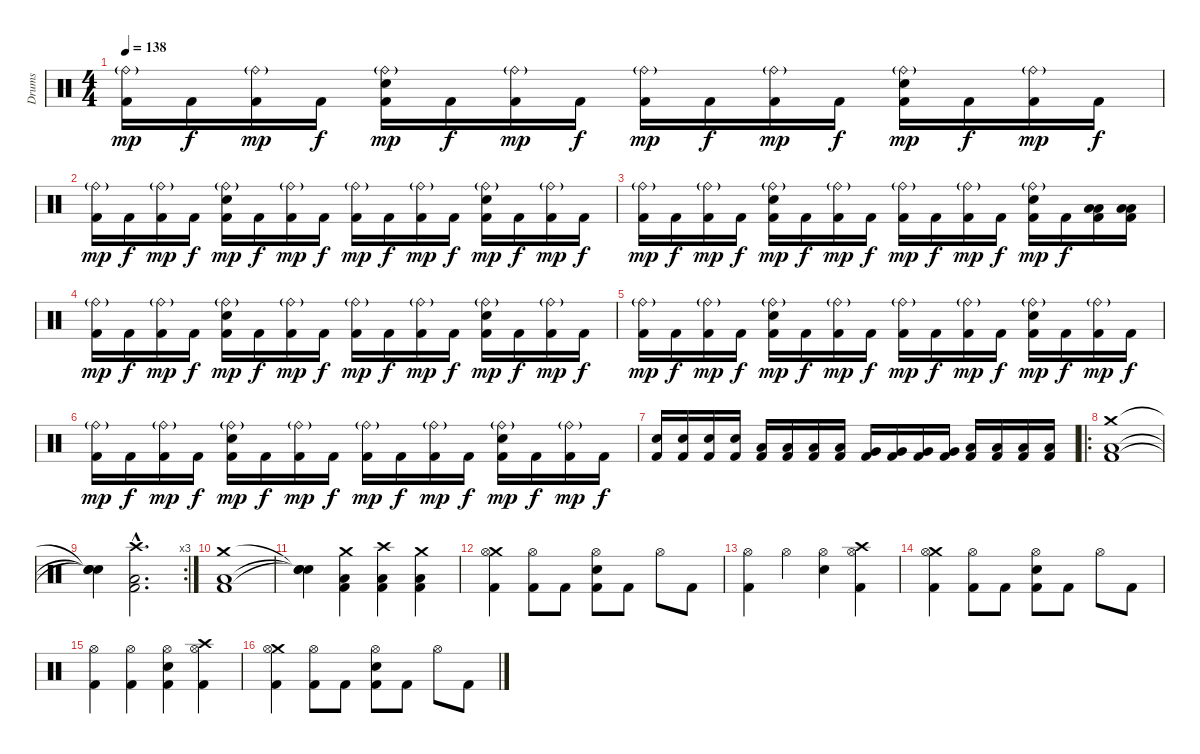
\track ("Drums" "Drums") {instrument percussion}
\staff {score}
\articulation defaults
\ts (4 4)
\tempo 138
\clef neutral
\ks c
("Ride (bell)"{g} "Kick (hit) 2").16{dy mp} "Kick (hit) 2".16{dy f} ("Ride (bell)"{g} "Kick (hit) 2").16{dy mp} "Kick (hit) 2".16{dy f} ("Ride (bell)"{g} "Electric Snare (hit)" "Kick (hit) 2").16{dy mp} "Kick (hit) 2".16{dy f} ("Ride (bell)"{g} "Kick (hit) 2").16{dy mp} "Kick (hit) 2".16{dy f} ("Ride (bell)"{g} "Kick (hit) 2").16{dy mp} "Kick (hit) 2".16{dy f} ("Ride (bell)"{g} "Kick (hit) 2").16{dy mp} "Kick (hit) 2".16{dy f} ("Ride (bell)"{g} "Electric Snare (hit)" "Kick (hit) 2").16{dy mp} "Kick (hit) 2".16{dy f} ("Ride (bell)"{g} "Kick (hit) 2").16{dy mp} "Kick (hit) 2".16{dy f} |
("Ride (bell)"{g} "Kick (hit) 2").16{dy mp} "Kick (hit) 2".16{dy f} ("Ride (bell)"{g} "Kick (hit) 2").16{dy mp} "Kick (hit) 2".16{dy f} ("Ride (bell)"{g} "Electric Snare (hit)" "Kick (hit) 2").16{dy mp} "Kick (hit) 2".16{dy f} ("Ride (bell)"{g} "Kick (hit) 2").16{dy mp} "Kick (hit) 2".16{dy f} ("Ride (bell)"{g} "Kick (hit) 2").16{dy mp} "Kick (hit) 2".16{dy f} ("Ride (bell)"{g} "Kick (hit) 2").16{dy mp} "Kick (hit) 2".16{dy f} ("Ride (bell)"{g} "Electric Snare (hit)" "Kick (hit) 2").16{dy mp} "Kick (hit) 2".16{dy f} ("Ride (bell)"{g} "Kick (hit) 2").16{dy mp} "Kick (hit) 2".16{dy f} |
("Ride (bell)"{g} "Kick (hit) 2").16{dy mp} "Kick (hit) 2".16{dy f} ("Ride (bell)"{g} "Kick (hit) 2").16{dy mp} "Kick (hit) 2".16{dy f} ("Ride (bell)"{g} "Electric Snare (hit)" "Kick (hit) 2").16{dy mp} "Kick (hit) 2".16{dy f} ("Ride (bell)"{g} "Kick (hit) 2").16{dy mp} "Kick (hit) 2".16{dy f} ("Ride (bell)"{g} "Kick (hit) 2").16{dy mp} "Kick (hit) 2".16{dy f} ("Ride (bell)"{g} "Kick (hit) 2").16{dy mp} "Kick (hit) 2".16{dy f} ("Ride (bell)"{g} "Electric Snare (hit)" "Kick (hit) 2").16{dy mp} "Kick (hit) 2".16{dy f} ("Low Floor Tom (hit)" "Low Floor Tom (hit)" "Kick (hit) 2").16 ("Low Floor Tom (hit)" "Low Floor Tom (hit)" "Kick (hit) 2").16 |
("Ride (bell)"{g} "Kick (hit) 2").16{dy mp} "Kick (hit) 2".16{dy f} ("Ride (bell)"{g} "Kick (hit) 2").16{dy mp} "Kick (hit) 2".16{dy f} ("Ride (bell)"{g} "Electric Snare (hit)" "Kick (hit) 2").16{dy mp} "Kick (hit) 2".16{dy f} ("Ride (bell)"{g} "Kick (hit) 2").16{dy mp} "Kick (hit) 2".16{dy f} ("Ride (bell)"{g} "Kick (hit) 2").16{dy mp} "Kick (hit) 2".16{dy f} ("Ride (bell)"{g} "Kick (hit) 2").16{dy mp} "Kick (hit) 2".16{dy f} ("Ride (bell)"{g} "Electric Snare (hit)" "Kick (hit) 2").16{dy mp} "Kick (hit) 2".16{dy f} ("Ride (bell)"{g} "Kick (hit) 2").16{dy mp} "Kick (hit) 2".16{dy f} |
("Ride (bell)"{g} "Kick (hit) 2").16{dy mp} "Kick (hit) 2".16{dy f} ("Ride (bell)"{g} "Kick (hit) 2").16{dy mp} "Kick (hit) 2".16{dy f} ("Ride (bell)"{g} "Electric Snare (hit)" "Kick (hit) 2").16{dy mp} "Kick (hit) 2".16{dy f} ("Ride (bell)"{g} "Kick (hit) 2").16{dy mp} "Kick (hit) 2".16{dy f} ("Ride (bell)"{g} "Kick (hit) 2").16{dy mp} "Kick (hit) 2".16{dy f} ("Ride (bell)"{g} "Kick (hit) 2").16{dy mp} "Kick (hit) 2".16{dy f} ("Ride (bell)"{g} "Electric Snare (hit)" "Kick (hit) 2").16{dy mp} "Kick (hit) 2".16{dy f} ("Ride (bell)"{g} "Kick (hit) 2").16{dy mp} "Kick (hit) 2".16{dy f} |
("Ride (bell)"{g} "Kick (hit) 2").16{dy mp} "Kick (hit) 2".16{dy f} ("Ride (bell)"{g} "Kick (hit) 2").16{dy mp} "Kick (hit) 2".16{dy f} ("Ride (bell)"{g} "Electric Snare (hit)" "Kick (hit) 2").16{dy mp} "Kick (hit) 2".16{dy f} ("Ride (bell)"{g} "Kick (hit) 2").16{dy mp} "Kick (hit) 2".16{dy f} ("Ride (bell)"{g} "Kick (hit) 2").16{dy mp} "Kick (hit) 2".16{dy f} ("Ride (bell)"{g} "Kick (hit) 2").16{dy mp} "Kick (hit) 2".16{dy f} ("Ride (bell)"{g} "Electric Snare (hit)" "Kick (hit) 2").16{dy mp} "Kick (hit) 2".16{dy f} ("Ride (bell)"{g} "Kick (hit) 2").16{dy mp} "Kick (hit) 2".16{dy f} |
("Electric Snare (hit)" "Kick (hit) 2").16 ("Electric Snare (hit)" "Kick (hit) 2").16 ("Electric Snare (hit)" "Kick (hit) 2").16 ("Electric Snare (hit)" "Kick (hit) 2").16 ("Low Floor Tom (hit)" "Kick (hit) 2").16 ("Low Floor Tom (hit)" "Kick (hit) 2").16 ("Low Floor Tom (hit)" "Kick (hit) 2").16 ("Low Floor Tom (hit)" "Kick (hit) 2").16 ("Very Low Tom (hit)" "Kick (hit) 2").16 ("Very Low Tom (hit)" "Kick (hit) 2").16 ("Very Low Tom (hit)" "Kick (hit) 2").16 ("Very Low Tom (hit)" "Kick (hit) 2").16 ("Low Tom (hit)" "Kick (hit) 2").16 ("Low Tom (hit)" "Kick (hit) 2").16 ("Low Tom (hit)" "Kick (hit) 2").16 ("Low Tom (hit)" "Kick (hit) 2").16 |
\ro
("Crash medium (hit)" "Low Floor Tom (hit)" "Kick (hit) 2").1 |
\rc 3
("Snare (hit)"{t} "Snare (hit)"{t} "Snare (hit)"{t}).4 ("Crash high (hit)"{hac} "Low Floor Tom (hit)"{hac} "Kick (hit) 2"{hac}).2{d} |
("Crash medium (hit)" "Low Floor Tom (hit)" "Kick (hit) 2").1 |
("Snare (hit)"{t} "Snare (hit)"{t} "Snare (hit)"{t}).4 ("Crash medium (hit)" "Low Floor Tom (hit)" "Kick (hit) 2").4 ("Crash high (hit)" "Low Floor Tom (hit)" "Kick (hit) 2").4 ("Crash medium (hit)" "Low Floor Tom (hit)" "Kick (hit) 2").4 |
("Crash medium (hit)" "Hi-Hat (open)" "Kick (hit) 2").4 ("Hi-Hat (open)" "Kick (hit) 2").8 "Kick (hit) 2".8 ("Hi-Hat (open)" "Electric Snare (hit)" "Kick (hit) 2").8 "Kick (hit) 2".8 "Hi-Hat (open)".8 "Kick (hit) 2".8 |
("Hi-Hat (open)" "Kick (hit) 2").4 "Hi-Hat (open)".4 ("Hi-Hat (open)" "Electric Snare (hit)").4 ("Crash high (hit)" "Hi-Hat (open)" "Kick (hit) 2").4 |
("Crash medium (hit)" "Hi-Hat (open)" "Kick (hit) 2").4 ("Hi-Hat (open)" "Kick (hit) 2").8 "Kick (hit) 2".8 ("Hi-Hat (open)" "Electric Snare (hit)" "Kick (hit) 2").8 "Kick (hit) 2".8 "Hi-Hat (open)".8 "Kick (hit) 2".8 |
("Hi-Hat (open)" "Kick (hit) 2").4 ("Hi-Hat (open)" "Kick (hit) 2").4 ("Hi-Hat (open)" "Electric Snare (hit)" "Kick (hit) 2").4 ("Crash high (hit)" "Hi-Hat (open)" "Kick (hit) 2").4 |
("Crash medium (hit)" "Hi-Hat (open)" "Kick (hit) 2").4 ("Hi-Hat (open)" "Kick (hit) 2").8 "Kick (hit) 2".8 ("Hi-Hat (open)" "Electric Snare (hit)" "Kick (hit) 2").8 "Kick (hit) 2".8 "Hi-Hat (open)".8 "Kick (hit) 2".8
